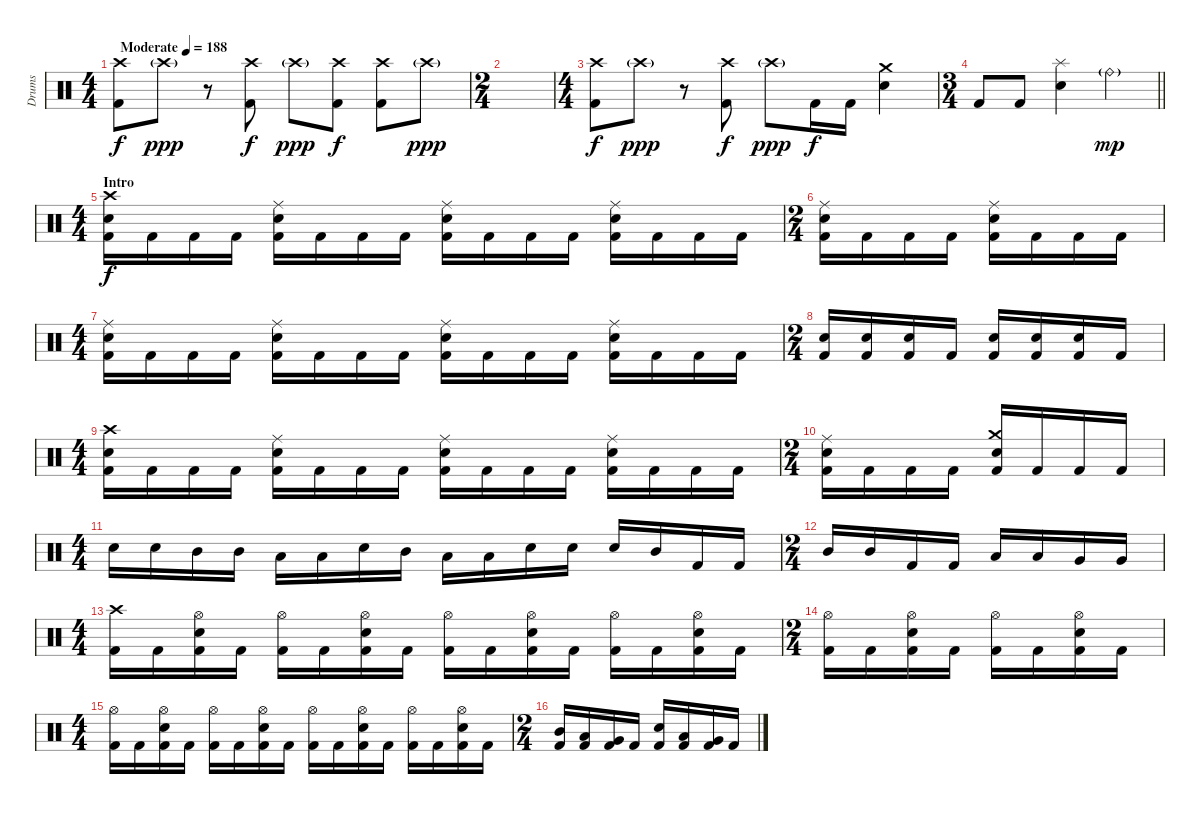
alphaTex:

\track ("Drums" "Drums") {instrument percussion}
\staff {score}
\articulation defaults
\ts (4 4)
\tempo (188 "Moderate")
\clef neutral
\ks c
("Crash high (hit)" "Kick (hit) 2").8{dy f} "Crash high (hit)"{g}.8{dy ppp} r.8 ("Crash high (hit)" "Kick (hit) 2").8{dy f} "Crash high (hit)"{g}.8{dy ppp} ("Crash high (hit)" "Kick (hit) 2").8{dy f} ("Crash high (hit)" "Kick (hit) 2").8 "Crash high (hit)"{g}.8{dy ppp} |
\ts (2 4)
|
\ts (4 4)
("Crash high (hit)" "Kick (hit) 2").8{dy f} "Crash high (hit)"{g}.8{dy ppp} r.8 ("Crash high (hit)" "Kick (hit) 2").8{dy f} "Crash high (hit)"{g}.8{dy ppp} "Kick (hit) 2".16{dy f} "Kick (hit) 2".16 ("Crash medium (hit)" "Electric Snare (hit)").4 |
\ts (3 4)
\barLineRight lightlight "Kick (hit) 2".8 "Kick (hit) 2".8
("Splash (hit)" "Electric Snare (hit)").4 "Ride (bell)"{g}.4{dy mp} |
\ts (4 4)
\section ("" "Intro")
("Crash high (hit)" "Electric Snare (hit)" "Kick (hit) 2").16{dy f} "Kick (hit) 2".16 "Kick (hit) 2".16 "Kick (hit) 2".16 ("Ride (middle)" "Electric Snare (hit)" "Kick (hit) 2").16 "Kick (hit) 2".16 "Kick (hit) 2".16 "Kick (hit) 2".16 ("Ride (middle)" "Electric Snare (hit)" "Kick (hit) 2").16 "Kick (hit) 2".16 "Kick (hit) 2".16 "Kick (hit) 2".16 ("Ride (middle)" "Electric Snare (hit)" "Kick (hit) 2").16 "Kick (hit) 2".16 "Kick (hit) 2".16 "Kick (hit) 2".16 |
\ts (2 4)
("Ride (middle)" "Electric Snare (hit)" "Kick (hit) 2").16 "Kick (hit) 2".16 "Kick (hit) 2".16 "Kick (hit) 2".16 ("Ride (middle)" "Electric Snare (hit)" "Kick (hit) 2").16 "Kick (hit) 2".16 "Kick (hit) 2".16 "Kick (hit) 2".16 |
\ts (4 4)
("Ride (middle)" "Electric Snare (hit)" "Kick (hit) 2").16 "Kick (hit) 2".16 "Kick (hit) 2".16 "Kick (hit) 2".16 ("Ride (middle)" "Electric Snare (hit)" "Kick (hit) 2").16 "Kick (hit) 2".16 "Kick (hit) 2".16 "Kick (hit) 2".16 ("Ride (middle)" "Electric Snare (hit)" "Kick (hit) 2").16 "Kick (hit) 2".16 "Kick (hit) 2".16 "Kick (hit) 2".16 ("Ride (middle)" "Electric Snare (hit)" "Kick (hit) 2").16 "Kick (hit) 2".16 "Kick (hit) 2".16 "Kick (hit) 2".16 |
\ts (2 4)
("Electric Snare (hit)" "Kick (hit) 2").16 ("Electric Snare (hit)" "Kick (hit) 2").16 ("Electric Snare (hit)" "Kick (hit) 2").16 "Kick (hit) 2".16 ("Electric Snare (hit)" "Kick (hit) 2").16 ("Electric Snare (hit)" "Kick (hit) 2").16 ("Electric Snare (hit)" "Kick (hit) 2").16 "Kick (hit) 2".16 |
\ts (4 4)
("Crash high (hit)" "Electric Snare (hit)" "Kick (hit) 2").16 "Kick (hit) 2".16 "Kick (hit) 2".16 "Kick (hit) 2".16 ("Ride (middle)" "Electric Snare (hit)" "Kick (hit) 2").16 "Kick (hit) 2".16 "Kick (hit) 2".16 "Kick (hit) 2".16 ("Ride (middle)" "Electric Snare (hit)" "Kick (hit) 2").16 "Kick (hit) 2".16 "Kick (hit) 2".16 "Kick (hit) 2".16 ("Ride (middle)" "Electric Snare (hit)" "Kick (hit) 2").16 "Kick (hit) 2".16 "Kick (hit) 2".16 "Kick (hit) 2".16 |
\ts (2 4)
("Ride (middle)" "Electric Snare (hit)" "Kick (hit) 2").16 "Kick (hit) 2".16 "Kick (hit) 2".16 "Kick (hit) 2".16 ("Crash medium (hit)" "Electric Snare (hit)" "Kick (hit) 2").16 "Kick (hit) 2".16 "Kick (hit) 2".16 "Kick (hit) 2".16 |
\ts (4 4)
"Electric Snare (hit)".16 "Electric Snare (hit)".16 "Mid Tom (hit)".16 "Mid Tom (hit)".16 "Low Tom (hit)".16 "Low Tom (hit)".16 "Electric Snare (hit)".16 "Mid Tom (hit)".16 "Low Tom (hit)".16 "Low Tom (hit)".16 "Electric Snare (hit)".16 "Electric Snare (hit)".16 "Electric Snare (hit)".16 "Mid Tom (hit)".16 "Kick (hit) 2".16 "Kick (hit) 2".16 |
\ts (2 4)
"Mid Tom (hit)".16 "Mid Tom (hit)".16 "Kick (hit) 2".16 "Kick (hit) 2".16 "Low Tom (hit)".16 "Low Tom (hit)".16 "Very Low Tom (hit)".16 "Very Low Tom (hit)".16 |
\ts (4 4)
("Crash high (hit)" "Kick (hit) 2").16 "Kick (hit) 2".16 ("Hi-Hat (open)" "Electric Snare (hit)" "Kick (hit) 2").16 "Kick (hit) 2".16 ("Hi-Hat (open)" "Kick (hit) 2").16 "Kick (hit) 2".16 ("Hi-Hat (open)" "Electric Snare (hit)" "Kick (hit) 2").16 "Kick (hit) 2".16 ("Hi-Hat (open)" "Kick (hit) 2").16 "Kick (hit) 2".16 ("Hi-Hat (open)" "Electric Snare (hit)" "Kick (hit) 2").16 "Kick (hit) 2".16 ("Hi-Hat (open)" "Kick (hit) 2").16 "Kick (hit) 2".16 ("Hi-Hat (open)" "Electric Snare (hit)" "Kick (hit) 2").16 "Kick (hit) 2".16 |
\ts (2 4)
("Hi-Hat (open)" "Kick (hit) 2").16 "Kick (hit) 2".16 ("Hi-Hat (open)" "Electric Snare (hit)" "Kick (hit) 2").16 "Kick (hit) 2".16 ("Hi-Hat (open)" "Kick (hit) 2").16 "Kick (hit) 2".16 ("Hi-Hat (open)" "Electric Snare (hit)" "Kick (hit) 2").16 "Kick (hit) 2".16 |
\ts (4 4)
("Hi-Hat (open)" "Kick (hit) 2").16 "Kick (hit) 2".16 ("Hi-Hat (open)" "Electric Snare (hit)" "Kick (hit) 2").16 "Kick (hit) 2".16 ("Hi-Hat (open)" "Kick (hit) 2").16 "Kick (hit) 2".16 ("Hi-Hat (open)" "Electric Snare (hit)" "Kick (hit) 2").16 "Kick (hit) 2".16 ("Hi-Hat (open)" "Kick (hit) 2").16 "Kick (hit) 2".16 ("Hi-Hat (open)" "Electric Snare (hit)" "Kick (hit) 2").16 "Kick (hit) 2".16 ("Hi-Hat (open)" "Kick (hit) 2").16 "Kick (hit) 2".16 ("Hi-Hat (open)" "Electric Snare (hit)" "Kick (hit) 2").16 "Kick (hit) 2".16 |
\ts (2 4)
("Mid Tom (hit)" "Kick (hit) 2").16 ("Low Tom (hit)" "Kick (hit) 2").16 ("Very Low Tom (hit)" "Kick (hit) 2").16 "Kick (hit) 2".16 ("Electric Snare (hit)" "Kick (hit) 2").16 ("Low Tom (hit)" "Kick (hit) 2").16 ("Very Low Tom (hit)" "Kick (hit) 2").16 "Kick (hit) 2".16
